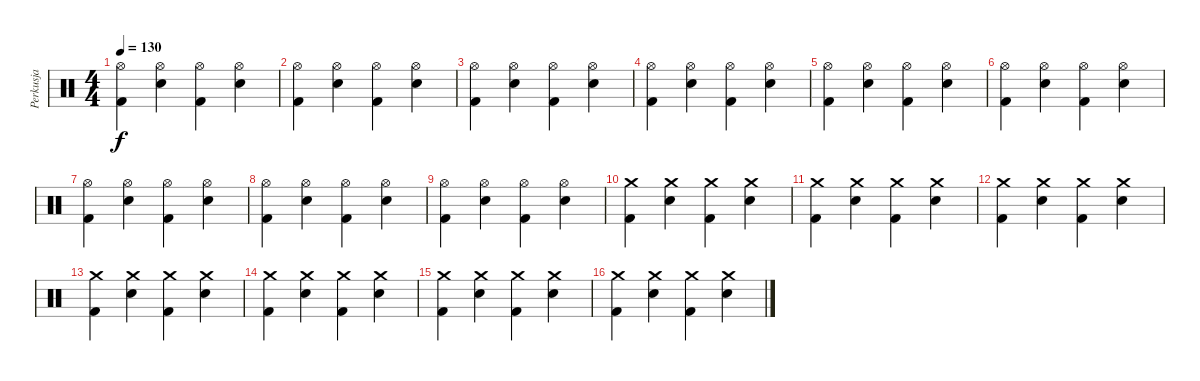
\track ("Perkusja" "Perkusja") {instrument percussion}
\staff {score}
\articulation defaults
\ts (4 4)
\tempo 130
\clef neutral
\ks c
("Hi-Hat (open)" "Kick (hit) 2").4{dy f} ("Hi-Hat (open)" "Snare (hit) 2").4 ("Hi-Hat (open)" "Kick (hit) 2").4 ("Hi-Hat (open)" "Snare (hit) 2").4 |
("Hi-Hat (open)" "Kick (hit) 2").4 ("Hi-Hat (open)" "Snare (hit) 2").4 ("Hi-Hat (open)" "Kick (hit) 2").4 ("Hi-Hat (open)" "Snare (hit) 2").4 |
("Hi-Hat (open)" "Kick (hit) 2").4 ("Hi-Hat (open)" "Snare (hit) 2").4 ("Hi-Hat (open)" "Kick (hit) 2").4 ("Hi-Hat (open)" "Snare (hit) 2").4 |
("Hi-Hat (open)" "Kick (hit) 2").4 ("Hi-Hat (open)" "Snare (hit) 2").4 ("Hi-Hat (open)" "Kick (hit) 2").4 ("Hi-Hat (open)" "Snare (hit) 2").4 |
("Hi-Hat (open)" "Kick (hit) 2").4 ("Hi-Hat (open)" "Snare (hit) 2").4 ("Hi-Hat (open)" "Kick (hit) 2").4 ("Hi-Hat (open)" "Snare (hit) 2").4 |
("Hi-Hat (open)" "Kick (hit) 2").4 ("Hi-Hat (open)" "Snare (hit) 2").4 ("Hi-Hat (open)" "Kick (hit) 2").4 ("Hi-Hat (open)" "Snare (hit) 2").4 |
("Hi-Hat (open)" "Kick (hit) 2").4 ("Hi-Hat (open)" "Snare (hit) 2").4 ("Hi-Hat (open)" "Kick (hit) 2").4 ("Hi-Hat (open)" "Snare (hit) 2").4 |
("Hi-Hat (open)" "Kick (hit) 2").4 ("Hi-Hat (open)" "Snare (hit) 2").4 ("Hi-Hat (open)" "Kick (hit) 2").4 ("Hi-Hat (open)" "Snare (hit) 2").4 |
("Hi-Hat (open)" "Kick (hit) 2").4 ("Hi-Hat (open)" "Snare (hit) 2").4 ("Hi-Hat (open)" "Kick (hit) 2").4 ("Hi-Hat (open)" "Snare (hit) 2").4 |
("Crash medium (hit)" "Kick (hit) 2").4 ("Crash medium (hit)" "Snare (hit) 2").4 ("Crash medium (hit)" "Kick (hit) 2").4 ("Crash medium (hit)" "Snare (hit) 2").4 |
("Crash medium (hit)" "Kick (hit) 2").4 ("Crash medium (hit)" "Snare (hit) 2").4 ("Crash medium (hit)" "Kick (hit) 2").4 ("Crash medium (hit)" "Snare (hit) 2").4 |
("Crash medium (hit)" "Kick (hit) 2").4 ("Crash medium (hit)" "Snare (hit) 2").4 ("Crash medium (hit)" "Kick (hit) 2").4 ("Crash medium (hit)" "Snare (hit) 2").4 |
("Crash medium (hit)" "Kick (hit) 2").4 ("Crash medium (hit)" "Snare (hit) 2").4 ("Crash medium (hit)" "Kick (hit) 2").4 ("Crash medium (hit)" "Snare (hit) 2").4 |
("Crash medium (hit)" "Kick (hit) 2").4 ("Crash medium (hit)" "Snare (hit) 2").4 ("Crash medium (hit)" "Kick (hit) 2").4 ("Crash medium (hit)" "Snare (hit) 2").4 |
("Crash medium (hit)" "Kick (hit) 2").4 ("Crash medium (hit)" "Snare (hit) 2").4 ("Crash medium (hit)" "Kick (hit) 2").4 ("Crash medium (hit)" "Snare (hit) 2").4 |
("Crash medium (hit)" "Kick (hit) 2").4 ("Crash medium (hit)" "Snare (hit) 2").4 ("Crash medium (hit)" "Kick (hit) 2").4 ("Crash medium (hit)" "Snare (hit) 2").4
